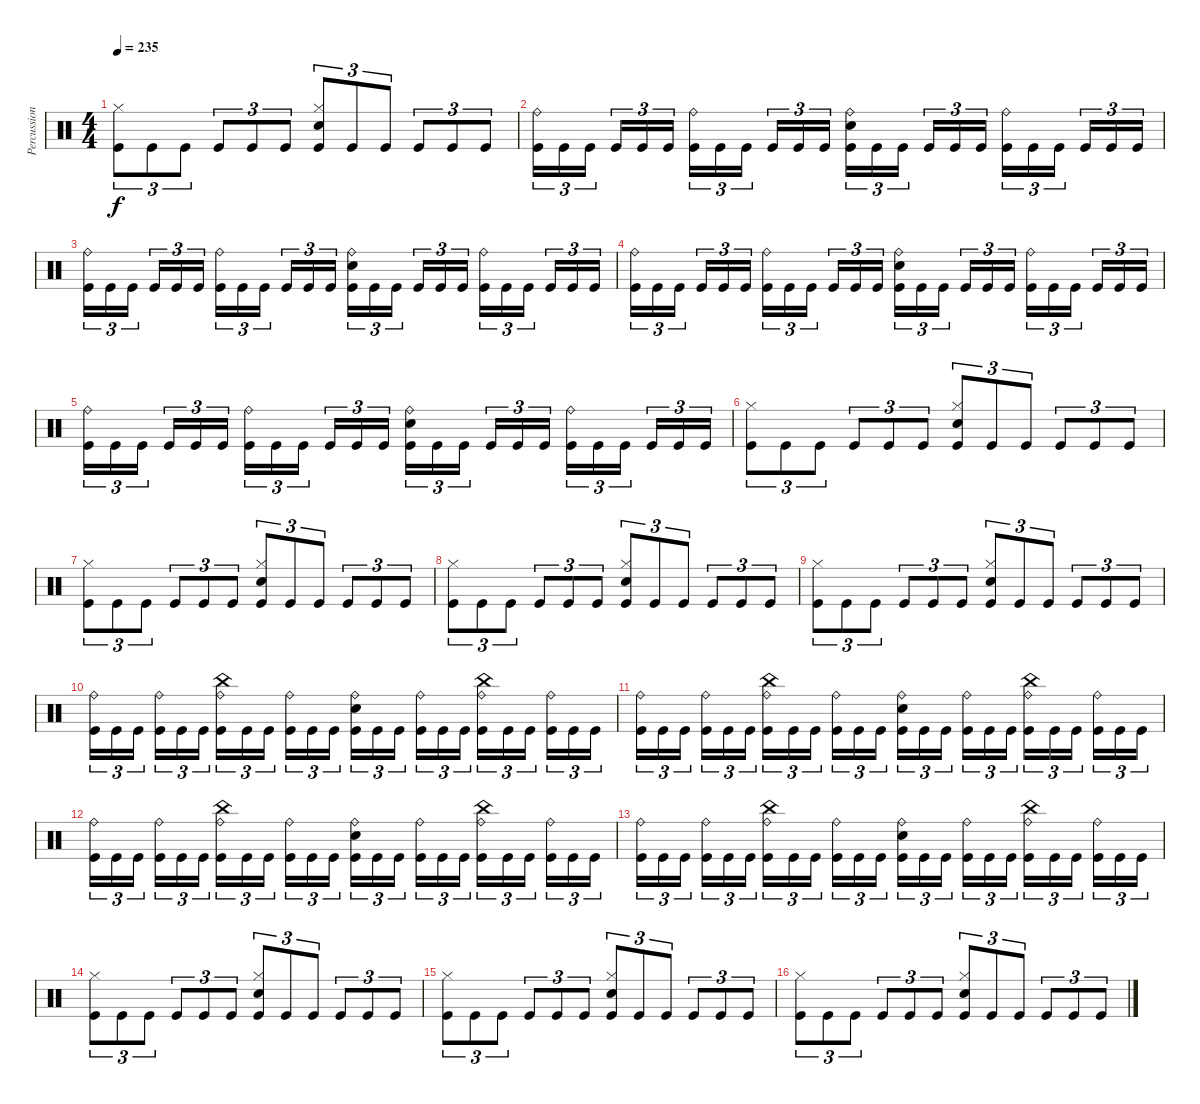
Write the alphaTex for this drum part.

\track ("Percussion" "Percussion") {instrument percussion}
\staff {score}
\articulation defaults
\ts (4 4)
\tempo 235
\clef neutral
\ks c
("Kick (hit)" "Hi-Hat (closed)").8{tu (3 2) dy f} "Kick (hit)".8{tu (3 2)} "Kick (hit)".8{tu (3 2)} "Kick (hit)".8{tu (3 2)} "Kick (hit)".8{tu (3 2)} "Kick (hit)".8{tu (3 2)} ("Kick (hit)" "Hi-Hat (closed)" "Snare (hit) 2").8{tu (3 2)} "Kick (hit)".8{tu (3 2)} "Kick (hit)".8{tu (3 2)} "Kick (hit)".8{tu (3 2)} "Kick (hit)".8{tu (3 2)} "Kick (hit)".8{tu (3 2)} |
("Kick (hit)" "Ride (bell)").16{tu (3 2)} "Kick (hit)".16{tu (3 2)} "Kick (hit)".16{tu (3 2) beam splitsecondary} "Kick (hit)".16{tu (3 2)} "Kick (hit)".16{tu (3 2)} "Kick (hit)".16{tu (3 2)} ("Kick (hit)" "Ride (bell)").16{tu (3 2)} "Kick (hit)".16{tu (3 2)} "Kick (hit)".16{tu (3 2) beam splitsecondary} "Kick (hit)".16{tu (3 2)} "Kick (hit)".16{tu (3 2)} "Kick (hit)".16{tu (3 2)} ("Kick (hit)" "Ride (bell)" "Snare (hit) 2").16{tu (3 2)} "Kick (hit)".16{tu (3 2)} "Kick (hit)".16{tu (3 2) beam splitsecondary} "Kick (hit)".16{tu (3 2)} "Kick (hit)".16{tu (3 2)} "Kick (hit)".16{tu (3 2)} ("Kick (hit)" "Ride (bell)").16{tu (3 2)} "Kick (hit)".16{tu (3 2)} "Kick (hit)".16{tu (3 2) beam splitsecondary} "Kick (hit)".16{tu (3 2)} "Kick (hit)".16{tu (3 2)} "Kick (hit)".16{tu (3 2)} |
("Kick (hit)" "Ride (bell)").16{tu (3 2)} "Kick (hit)".16{tu (3 2)} "Kick (hit)".16{tu (3 2) beam splitsecondary} "Kick (hit)".16{tu (3 2)} "Kick (hit)".16{tu (3 2)} "Kick (hit)".16{tu (3 2)} ("Kick (hit)" "Ride (bell)").16{tu (3 2)} "Kick (hit)".16{tu (3 2)} "Kick (hit)".16{tu (3 2) beam splitsecondary} "Kick (hit)".16{tu (3 2)} "Kick (hit)".16{tu (3 2)} "Kick (hit)".16{tu (3 2)} ("Kick (hit)" "Ride (bell)" "Snare (hit) 2").16{tu (3 2)} "Kick (hit)".16{tu (3 2)} "Kick (hit)".16{tu (3 2) beam splitsecondary} "Kick (hit)".16{tu (3 2)} "Kick (hit)".16{tu (3 2)} "Kick (hit)".16{tu (3 2)} ("Kick (hit)" "Ride (bell)").16{tu (3 2)} "Kick (hit)".16{tu (3 2)} "Kick (hit)".16{tu (3 2) beam splitsecondary} "Kick (hit)".16{tu (3 2)} "Kick (hit)".16{tu (3 2)} "Kick (hit)".16{tu (3 2)} |
("Kick (hit)" "Ride (bell)").16{tu (3 2)} "Kick (hit)".16{tu (3 2)} "Kick (hit)".16{tu (3 2) beam splitsecondary} "Kick (hit)".16{tu (3 2)} "Kick (hit)".16{tu (3 2)} "Kick (hit)".16{tu (3 2)} ("Kick (hit)" "Ride (bell)").16{tu (3 2)} "Kick (hit)".16{tu (3 2)} "Kick (hit)".16{tu (3 2) beam splitsecondary} "Kick (hit)".16{tu (3 2)} "Kick (hit)".16{tu (3 2)} "Kick (hit)".16{tu (3 2)} ("Kick (hit)" "Ride (bell)" "Snare (hit) 2").16{tu (3 2)} "Kick (hit)".16{tu (3 2)} "Kick (hit)".16{tu (3 2) beam splitsecondary} "Kick (hit)".16{tu (3 2)} "Kick (hit)".16{tu (3 2)} "Kick (hit)".16{tu (3 2)} ("Kick (hit)" "Ride (bell)").16{tu (3 2)} "Kick (hit)".16{tu (3 2)} "Kick (hit)".16{tu (3 2) beam splitsecondary} "Kick (hit)".16{tu (3 2)} "Kick (hit)".16{tu (3 2)} "Kick (hit)".16{tu (3 2)} |
("Kick (hit)" "Ride (bell)").16{tu (3 2)} "Kick (hit)".16{tu (3 2)} "Kick (hit)".16{tu (3 2) beam splitsecondary} "Kick (hit)".16{tu (3 2)} "Kick (hit)".16{tu (3 2)} "Kick (hit)".16{tu (3 2)} ("Kick (hit)" "Ride (bell)").16{tu (3 2)} "Kick (hit)".16{tu (3 2)} "Kick (hit)".16{tu (3 2) beam splitsecondary} "Kick (hit)".16{tu (3 2)} "Kick (hit)".16{tu (3 2)} "Kick (hit)".16{tu (3 2)} ("Kick (hit)" "Ride (bell)" "Snare (hit) 2").16{tu (3 2)} "Kick (hit)".16{tu (3 2)} "Kick (hit)".16{tu (3 2) beam splitsecondary} "Kick (hit)".16{tu (3 2)} "Kick (hit)".16{tu (3 2)} "Kick (hit)".16{tu (3 2)} ("Kick (hit)" "Ride (bell)").16{tu (3 2)} "Kick (hit)".16{tu (3 2)} "Kick (hit)".16{tu (3 2) beam splitsecondary} "Kick (hit)".16{tu (3 2)} "Kick (hit)".16{tu (3 2)} "Kick (hit)".16{tu (3 2)} |
("Kick (hit)" "Hi-Hat (closed)").8{tu (3 2)} "Kick (hit)".8{tu (3 2)} "Kick (hit)".8{tu (3 2)} "Kick (hit)".8{tu (3 2)} "Kick (hit)".8{tu (3 2)} "Kick (hit)".8{tu (3 2)} ("Kick (hit)" "Hi-Hat (closed)" "Snare (hit) 2").8{tu (3 2)} "Kick (hit)".8{tu (3 2)} "Kick (hit)".8{tu (3 2)} "Kick (hit)".8{tu (3 2)} "Kick (hit)".8{tu (3 2)} "Kick (hit)".8{tu (3 2)} |
("Kick (hit)" "Hi-Hat (closed)").8{tu (3 2)} "Kick (hit)".8{tu (3 2)} "Kick (hit)".8{tu (3 2)} "Kick (hit)".8{tu (3 2)} "Kick (hit)".8{tu (3 2)} "Kick (hit)".8{tu (3 2)} ("Kick (hit)" "Hi-Hat (closed)" "Snare (hit) 2").8{tu (3 2)} "Kick (hit)".8{tu (3 2)} "Kick (hit)".8{tu (3 2)} "Kick (hit)".8{tu (3 2)} "Kick (hit)".8{tu (3 2)} "Kick (hit)".8{tu (3 2)} |
("Kick (hit)" "Hi-Hat (closed)").8{tu (3 2)} "Kick (hit)".8{tu (3 2)} "Kick (hit)".8{tu (3 2)} "Kick (hit)".8{tu (3 2)} "Kick (hit)".8{tu (3 2)} "Kick (hit)".8{tu (3 2)} ("Kick (hit)" "Hi-Hat (closed)" "Snare (hit) 2").8{tu (3 2)} "Kick (hit)".8{tu (3 2)} "Kick (hit)".8{tu (3 2)} "Kick (hit)".8{tu (3 2)} "Kick (hit)".8{tu (3 2)} "Kick (hit)".8{tu (3 2)} |
("Kick (hit)" "Hi-Hat (closed)").8{tu (3 2)} "Kick (hit)".8{tu (3 2)} "Kick (hit)".8{tu (3 2)} "Kick (hit)".8{tu (3 2)} "Kick (hit)".8{tu (3 2)} "Kick (hit)".8{tu (3 2)} ("Kick (hit)" "Hi-Hat (closed)" "Snare (hit) 2").8{tu (3 2)} "Kick (hit)".8{tu (3 2)} "Kick (hit)".8{tu (3 2)} "Kick (hit)".8{tu (3 2)} "Kick (hit)".8{tu (3 2)} "Kick (hit)".8{tu (3 2)} |
("Kick (hit)" "Ride (bell)").16{tu (3 2)} "Kick (hit)".16{tu (3 2)} "Kick (hit)".16{tu (3 2) beam splitsecondary} ("Kick (hit)" "Ride (bell)").16{tu (3 2)} "Kick (hit)".16{tu (3 2)} "Kick (hit)".16{tu (3 2)} ("Kick (hit)" "Ride (bell)" "China (hit)").16{tu (3 2)} "Kick (hit)".16{tu (3 2)} "Kick (hit)".16{tu (3 2) beam splitsecondary} ("Kick (hit)" "Ride (bell)").16{tu (3 2)} "Kick (hit)".16{tu (3 2)} "Kick (hit)".16{tu (3 2)} ("Kick (hit)" "Ride (bell)" "Snare (hit) 2").16{tu (3 2)} "Kick (hit)".16{tu (3 2)} "Kick (hit)".16{tu (3 2) beam splitsecondary} ("Kick (hit)" "Ride (bell)").16{tu (3 2)} "Kick (hit)".16{tu (3 2)} "Kick (hit)".16{tu (3 2)} ("Kick (hit)" "Ride (bell)" "China (hit)").16{tu (3 2)} "Kick (hit)".16{tu (3 2)} "Kick (hit)".16{tu (3 2) beam splitsecondary} ("Kick (hit)" "Ride (bell)").16{tu (3 2)} "Kick (hit)".16{tu (3 2)} "Kick (hit)".16{tu (3 2)} |
("Kick (hit)" "Ride (bell)").16{tu (3 2)} "Kick (hit)".16{tu (3 2)} "Kick (hit)".16{tu (3 2) beam splitsecondary} ("Kick (hit)" "Ride (bell)").16{tu (3 2)} "Kick (hit)".16{tu (3 2)} "Kick (hit)".16{tu (3 2)} ("Kick (hit)" "Ride (bell)" "China (hit)").16{tu (3 2)} "Kick (hit)".16{tu (3 2)} "Kick (hit)".16{tu (3 2) beam splitsecondary} ("Kick (hit)" "Ride (bell)").16{tu (3 2)} "Kick (hit)".16{tu (3 2)} "Kick (hit)".16{tu (3 2)} ("Kick (hit)" "Ride (bell)" "Snare (hit) 2").16{tu (3 2)} "Kick (hit)".16{tu (3 2)} "Kick (hit)".16{tu (3 2) beam splitsecondary} ("Kick (hit)" "Ride (bell)").16{tu (3 2)} "Kick (hit)".16{tu (3 2)} "Kick (hit)".16{tu (3 2)} ("Kick (hit)" "Ride (bell)" "China (hit)").16{tu (3 2)} "Kick (hit)".16{tu (3 2)} "Kick (hit)".16{tu (3 2) beam splitsecondary} ("Kick (hit)" "Ride (bell)").16{tu (3 2)} "Kick (hit)".16{tu (3 2)} "Kick (hit)".16{tu (3 2)} |
("Kick (hit)" "Ride (bell)").16{tu (3 2)} "Kick (hit)".16{tu (3 2)} "Kick (hit)".16{tu (3 2) beam splitsecondary} ("Kick (hit)" "Ride (bell)").16{tu (3 2)} "Kick (hit)".16{tu (3 2)} "Kick (hit)".16{tu (3 2)} ("Kick (hit)" "Ride (bell)" "China (hit)").16{tu (3 2)} "Kick (hit)".16{tu (3 2)} "Kick (hit)".16{tu (3 2) beam splitsecondary} ("Kick (hit)" "Ride (bell)").16{tu (3 2)} "Kick (hit)".16{tu (3 2)} "Kick (hit)".16{tu (3 2)} ("Kick (hit)" "Ride (bell)" "Snare (hit) 2").16{tu (3 2)} "Kick (hit)".16{tu (3 2)} "Kick (hit)".16{tu (3 2) beam splitsecondary} ("Kick (hit)" "Ride (bell)").16{tu (3 2)} "Kick (hit)".16{tu (3 2)} "Kick (hit)".16{tu (3 2)} ("Kick (hit)" "Ride (bell)" "China (hit)").16{tu (3 2)} "Kick (hit)".16{tu (3 2)} "Kick (hit)".16{tu (3 2) beam splitsecondary} ("Kick (hit)" "Ride (bell)").16{tu (3 2)} "Kick (hit)".16{tu (3 2)} "Kick (hit)".16{tu (3 2)} |
("Kick (hit)" "Ride (bell)").16{tu (3 2)} "Kick (hit)".16{tu (3 2)} "Kick (hit)".16{tu (3 2) beam splitsecondary} ("Kick (hit)" "Ride (bell)").16{tu (3 2)} "Kick (hit)".16{tu (3 2)} "Kick (hit)".16{tu (3 2)} ("Kick (hit)" "Ride (bell)" "China (hit)").16{tu (3 2)} "Kick (hit)".16{tu (3 2)} "Kick (hit)".16{tu (3 2) beam splitsecondary} ("Kick (hit)" "Ride (bell)").16{tu (3 2)} "Kick (hit)".16{tu (3 2)} "Kick (hit)".16{tu (3 2)} ("Kick (hit)" "Ride (bell)" "Snare (hit) 2").16{tu (3 2)} "Kick (hit)".16{tu (3 2)} "Kick (hit)".16{tu (3 2) beam splitsecondary} ("Kick (hit)" "Ride (bell)").16{tu (3 2)} "Kick (hit)".16{tu (3 2)} "Kick (hit)".16{tu (3 2)} ("Kick (hit)" "Ride (bell)" "China (hit)").16{tu (3 2)} "Kick (hit)".16{tu (3 2)} "Kick (hit)".16{tu (3 2) beam splitsecondary} ("Kick (hit)" "Ride (bell)").16{tu (3 2)} "Kick (hit)".16{tu (3 2)} "Kick (hit)".16{tu (3 2)} |
("Kick (hit)" "Hi-Hat (closed)").8{tu (3 2)} "Kick (hit)".8{tu (3 2)} "Kick (hit)".8{tu (3 2)} "Kick (hit)".8{tu (3 2)} "Kick (hit)".8{tu (3 2)} "Kick (hit)".8{tu (3 2)} ("Kick (hit)" "Hi-Hat (closed)" "Snare (hit) 2").8{tu (3 2)} "Kick (hit)".8{tu (3 2)} "Kick (hit)".8{tu (3 2)} "Kick (hit)".8{tu (3 2)} "Kick (hit)".8{tu (3 2)} "Kick (hit)".8{tu (3 2)} |
("Kick (hit)" "Hi-Hat (closed)").8{tu (3 2)} "Kick (hit)".8{tu (3 2)} "Kick (hit)".8{tu (3 2)} "Kick (hit)".8{tu (3 2)} "Kick (hit)".8{tu (3 2)} "Kick (hit)".8{tu (3 2)} ("Kick (hit)" "Hi-Hat (closed)" "Snare (hit) 2").8{tu (3 2)} "Kick (hit)".8{tu (3 2)} "Kick (hit)".8{tu (3 2)} "Kick (hit)".8{tu (3 2)} "Kick (hit)".8{tu (3 2)} "Kick (hit)".8{tu (3 2)} |
("Kick (hit)" "Hi-Hat (closed)").8{tu (3 2)} "Kick (hit)".8{tu (3 2)} "Kick (hit)".8{tu (3 2)} "Kick (hit)".8{tu (3 2)} "Kick (hit)".8{tu (3 2)} "Kick (hit)".8{tu (3 2)} ("Kick (hit)" "Hi-Hat (closed)" "Snare (hit) 2").8{tu (3 2)} "Kick (hit)".8{tu (3 2)} "Kick (hit)".8{tu (3 2)} "Kick (hit)".8{tu (3 2)} "Kick (hit)".8{tu (3 2)} "Kick (hit)".8{tu (3 2)}
